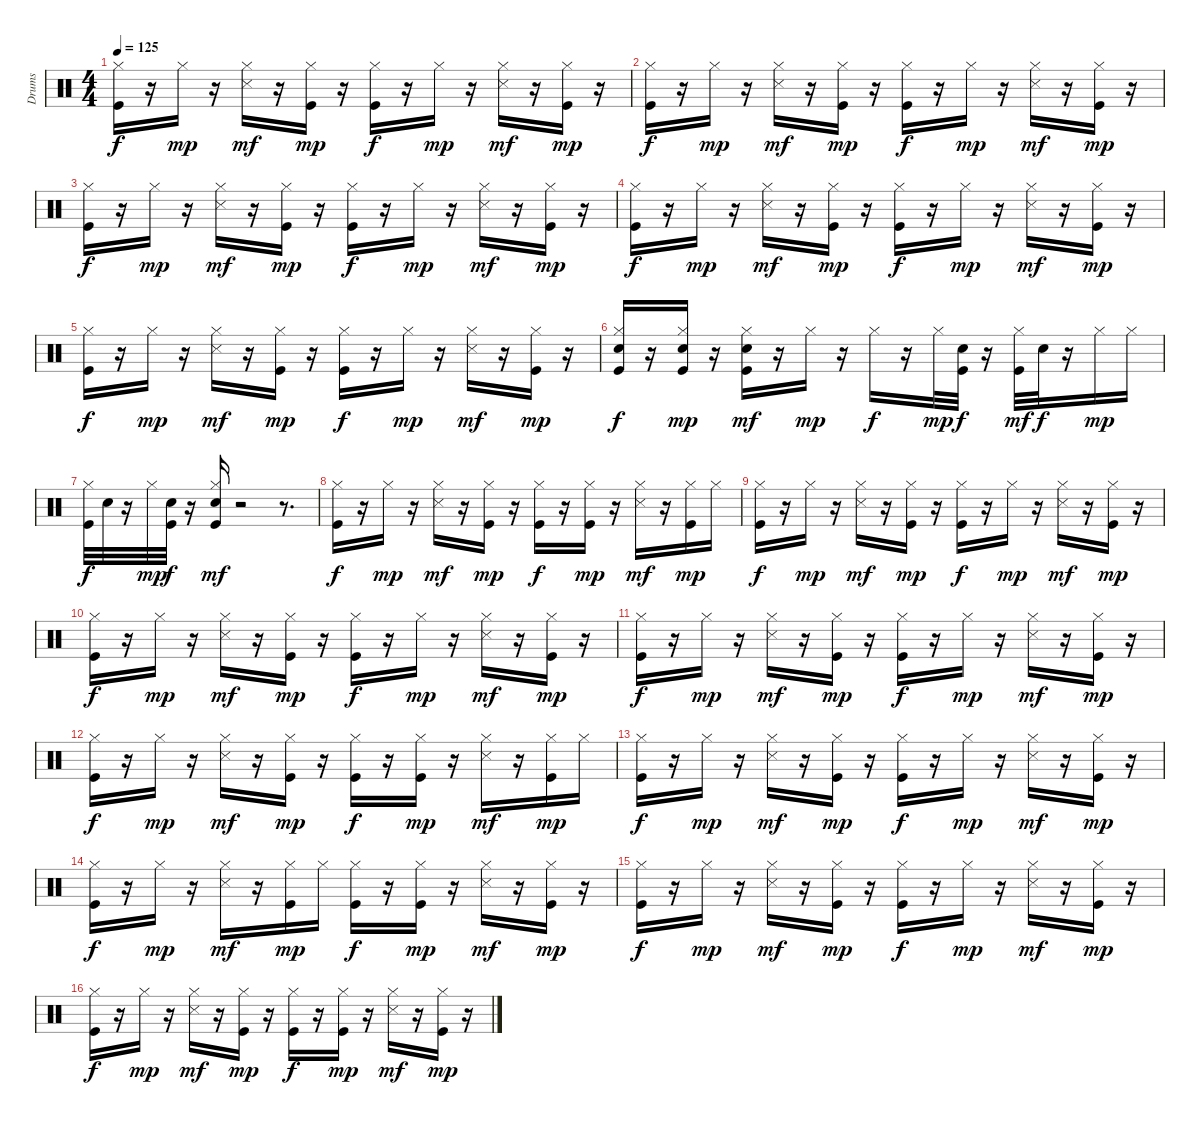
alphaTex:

\track ("Drums   " "Drums   ") {solo instrument percussion}
\staff {score}
\articulation defaults
\ts (4 4)
\tempo 125
\clef neutral
\ks c
("Kick (hit)" "Hi-Hat (closed)").16{dy f} r.16 "Hi-Hat (closed)".16{dy mp} r.16 ("Hi-Hat (closed)" "Snare (side stick) 3").16{dy mf} r.16 ("Kick (hit)" "Hi-Hat (closed)").16{dy mp} r.16 ("Kick (hit)" "Hi-Hat (closed)").16{dy f} r.16 "Hi-Hat (closed)".16{dy mp} r.16 ("Hi-Hat (closed)" "Snare (side stick) 3").16{dy mf} r.16 ("Kick (hit)" "Hi-Hat (closed)").16{dy mp} r.16 |
("Kick (hit)" "Hi-Hat (closed)").16{dy f} r.16 "Hi-Hat (closed)".16{dy mp} r.16 ("Hi-Hat (closed)" "Snare (side stick) 3").16{dy mf} r.16 ("Kick (hit)" "Hi-Hat (closed)").16{dy mp} r.16 ("Kick (hit)" "Hi-Hat (closed)").16{dy f} r.16 "Hi-Hat (closed)".16{dy mp} r.16 ("Hi-Hat (closed)" "Snare (side stick) 3").16{dy mf} r.16 ("Kick (hit)" "Hi-Hat (closed)").16{dy mp} r.16 |
("Kick (hit)" "Hi-Hat (closed)").16{dy f} r.16 "Hi-Hat (closed)".16{dy mp} r.16 ("Hi-Hat (closed)" "Snare (side stick) 3").16{dy mf} r.16 ("Kick (hit)" "Hi-Hat (closed)").16{dy mp} r.16 ("Kick (hit)" "Hi-Hat (closed)").16{dy f} r.16 "Hi-Hat (closed)".16{dy mp} r.16 ("Hi-Hat (closed)" "Snare (side stick) 3").16{dy mf} r.16 ("Kick (hit)" "Hi-Hat (closed)").16{dy mp} r.16 |
("Kick (hit)" "Hi-Hat (closed)").16{dy f} r.16 "Hi-Hat (closed)".16{dy mp} r.16 ("Hi-Hat (closed)" "Snare (side stick) 3").16{dy mf} r.16 ("Kick (hit)" "Hi-Hat (closed)").16{dy mp} r.16 ("Kick (hit)" "Hi-Hat (closed)").16{dy f} r.16 "Hi-Hat (closed)".16{dy mp} r.16 ("Hi-Hat (closed)" "Snare (side stick) 3").16{dy mf} r.16 ("Kick (hit)" "Hi-Hat (closed)").16{dy mp} r.16 |
("Kick (hit)" "Hi-Hat (closed)").16{dy f} r.16 "Hi-Hat (closed)".16{dy mp} r.16 ("Hi-Hat (closed)" "Snare (side stick) 3").16{dy mf} r.16 ("Kick (hit)" "Hi-Hat (closed)").16{dy mp} r.16 ("Kick (hit)" "Hi-Hat (closed)").16{dy f} r.16 "Hi-Hat (closed)".16{dy mp} r.16 ("Hi-Hat (closed)" "Snare (side stick) 3").16{dy mf} r.16 ("Kick (hit)" "Hi-Hat (closed)").16{dy mp} r.16 |
("Snare (hit) 2" "Hi-Hat (closed)" "Kick (hit)").16{dy f} r.16 ("Snare (hit) 2" "Hi-Hat (closed)" "Kick (hit)").16{dy mp} r.16 ("Hi-Hat (closed)" "Kick (hit)" "Snare (hit) 2").16{dy mf} r.16 "Hi-Hat (closed)".16{dy mp} r.16 "Hi-Hat (closed)".16{dy f} r.16 "Hi-Hat (closed)".32{dy mp} ("Kick (hit)" "Snare (hit) 2").32{dy f} r.16 ("Hi-Hat (closed)" "Kick (hit)").32{dy mf} "Snare (hit) 2".32{dy f} r.16 "Hi-Hat (closed)".16{dy mp} "Hi-Hat (closed)".16 |
("Hi-Hat (closed)" "Kick (hit)").32{dy f} "Snare (hit) 2".32 r.16 "Hi-Hat (closed)".32{dy mp} ("Kick (hit)" "Snare (hit) 2").32{dy f} r.16 ("Hi-Hat (closed)" "Kick (hit)" "Snare (hit) 2").16{dy mf} r.2 r.8{d} |
("Kick (hit)" "Hi-Hat (closed)").16{dy f} r.16 "Hi-Hat (closed)".16{dy mp} r.16 ("Hi-Hat (closed)" "Snare (side stick) 3").16{dy mf} r.16 ("Kick (hit)" "Hi-Hat (closed)").16{dy mp} r.16 ("Kick (hit)" "Hi-Hat (closed)").16{dy f} r.16 ("Kick (hit)" "Hi-Hat (closed)").16{dy mp} r.16 ("Hi-Hat (closed)" "Snare (side stick) 3").16{dy mf} r.16 ("Kick (hit)" "Hi-Hat (closed)").16{dy mp} "Hi-Hat (closed)".16 |
("Kick (hit)" "Hi-Hat (closed)").16{dy f} r.16 "Hi-Hat (closed)".16{dy mp} r.16 ("Hi-Hat (closed)" "Snare (side stick) 3").16{dy mf} r.16 ("Kick (hit)" "Hi-Hat (closed)").16{dy mp} r.16 ("Kick (hit)" "Hi-Hat (closed)").16{dy f} r.16 "Hi-Hat (closed)".16{dy mp} r.16 ("Hi-Hat (closed)" "Snare (side stick) 3").16{dy mf} r.16 ("Kick (hit)" "Hi-Hat (closed)").16{dy mp} r.16 |
("Kick (hit)" "Hi-Hat (closed)").16{dy f} r.16 "Hi-Hat (closed)".16{dy mp} r.16 ("Hi-Hat (closed)" "Snare (side stick) 3").16{dy mf} r.16 ("Kick (hit)" "Hi-Hat (closed)").16{dy mp} r.16 ("Kick (hit)" "Hi-Hat (closed)").16{dy f} r.16 "Hi-Hat (closed)".16{dy mp} r.16 ("Hi-Hat (closed)" "Snare (side stick) 3").16{dy mf} r.16 ("Kick (hit)" "Hi-Hat (closed)").16{dy mp} r.16 |
("Kick (hit)" "Hi-Hat (closed)").16{dy f} r.16 "Hi-Hat (closed)".16{dy mp} r.16 ("Hi-Hat (closed)" "Snare (side stick) 3").16{dy mf} r.16 ("Kick (hit)" "Hi-Hat (closed)").16{dy mp} r.16 ("Kick (hit)" "Hi-Hat (closed)").16{dy f} r.16 "Hi-Hat (closed)".16{dy mp} r.16 ("Hi-Hat (closed)" "Snare (side stick) 3").16{dy mf} r.16 ("Kick (hit)" "Hi-Hat (closed)").16{dy mp} r.16 |
("Kick (hit)" "Hi-Hat (closed)").16{dy f} r.16 "Hi-Hat (closed)".16{dy mp} r.16 ("Hi-Hat (closed)" "Snare (side stick) 3").16{dy mf} r.16 ("Kick (hit)" "Hi-Hat (closed)").16{dy mp} r.16 ("Kick (hit)" "Hi-Hat (closed)").16{dy f} r.16 ("Kick (hit)" "Hi-Hat (closed)").16{dy mp} r.16 ("Hi-Hat (closed)" "Snare (side stick) 3").16{dy mf} r.16 ("Kick (hit)" "Hi-Hat (closed)").16{dy mp} "Hi-Hat (closed)".16 |
("Kick (hit)" "Hi-Hat (closed)").16{dy f} r.16 "Hi-Hat (closed)".16{dy mp} r.16 ("Hi-Hat (closed)" "Snare (side stick) 3").16{dy mf} r.16 ("Kick (hit)" "Hi-Hat (closed)").16{dy mp} r.16 ("Kick (hit)" "Hi-Hat (closed)").16{dy f} r.16 "Hi-Hat (closed)".16{dy mp} r.16 ("Hi-Hat (closed)" "Snare (side stick) 3").16{dy mf} r.16 ("Kick (hit)" "Hi-Hat (closed)").16{dy mp} r.16 |
("Kick (hit)" "Hi-Hat (closed)").16{dy f} r.16 "Hi-Hat (closed)".16{dy mp} r.16 ("Hi-Hat (closed)" "Snare (side stick) 3").16{dy mf} r.16 ("Kick (hit)" "Hi-Hat (closed)").16{dy mp} "Hi-Hat (closed)".16 ("Kick (hit)" "Hi-Hat (closed)").16{dy f} r.16 ("Kick (hit)" "Hi-Hat (closed)").16{dy mp} r.16 ("Hi-Hat (closed)" "Snare (side stick) 3").16{dy mf} r.16 ("Kick (hit)" "Hi-Hat (closed)").16{dy mp} r.16 |
("Kick (hit)" "Hi-Hat (closed)").16{dy f} r.16 "Hi-Hat (closed)".16{dy mp} r.16 ("Hi-Hat (closed)" "Snare (side stick) 3").16{dy mf} r.16 ("Kick (hit)" "Hi-Hat (closed)").16{dy mp} r.16 ("Kick (hit)" "Hi-Hat (closed)").16{dy f} r.16 "Hi-Hat (closed)".16{dy mp} r.16 ("Hi-Hat (closed)" "Snare (side stick) 3").16{dy mf} r.16 ("Kick (hit)" "Hi-Hat (closed)").16{dy mp} r.16 |
("Kick (hit)" "Hi-Hat (closed)").16{dy f} r.16 "Hi-Hat (closed)".16{dy mp} r.16 ("Hi-Hat (closed)" "Snare (side stick) 3").16{dy mf} r.16 ("Kick (hit)" "Hi-Hat (closed)").16{dy mp} r.16 ("Kick (hit)" "Hi-Hat (closed)").16{dy f} r.16 ("Kick (hit)" "Hi-Hat (closed)").16{dy mp} r.16 ("Hi-Hat (closed)" "Snare (side stick) 3").16{dy mf} r.16 ("Kick (hit)" "Hi-Hat (closed)").16{dy mp} r.16
